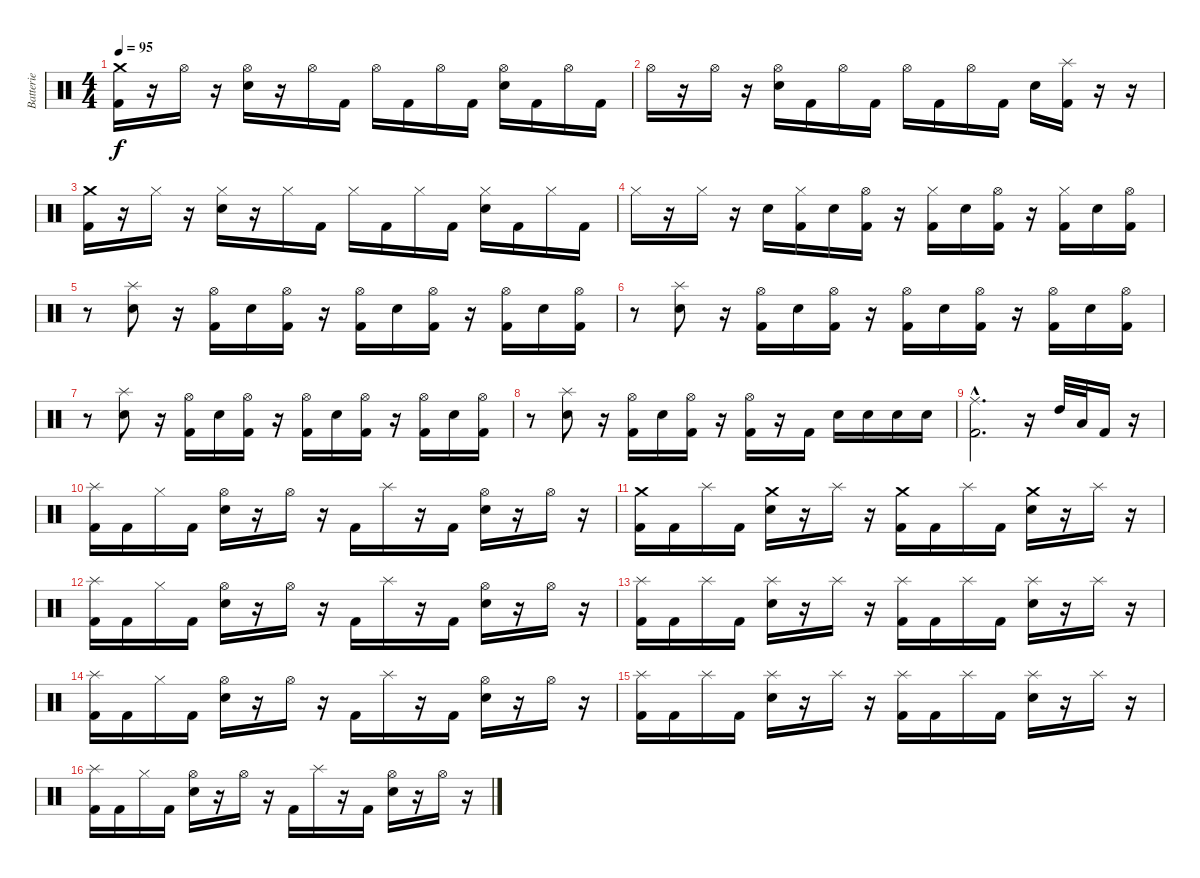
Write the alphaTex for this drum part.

\track ("Batterie" "Batterie") {instrument percussion}
\staff {score}
\articulation defaults
\ts (4 4)
\tempo 95
\clef neutral
\ks c
("Crash medium (hit)" "Kick (hit) 2").16{dy f} r.16 "Hi-Hat (open)".16 r.16 ("Hi-Hat (open)" "Electric Snare (hit)").16 r.16 "Hi-Hat (open)".16 "Kick (hit) 2".16 "Hi-Hat (open)".16 "Kick (hit) 2".16 "Hi-Hat (open)".16 "Kick (hit) 2".16 ("Hi-Hat (open)" "Electric Snare (hit)").16 "Kick (hit) 2".16 "Hi-Hat (open)".16 "Kick (hit) 2".16 |
"Hi-Hat (open)".16 r.16 "Hi-Hat (open)".16 r.16 ("Hi-Hat (open)" "Electric Snare (hit)").16 "Kick (hit) 2".16 "Hi-Hat (open)".16 "Kick (hit) 2".16 "Hi-Hat (open)".16 "Kick (hit) 2".16 "Hi-Hat (open)".16 "Kick (hit) 2".16 "Electric Snare (hit)".16 ("Splash (hit)" "Kick (hit) 2").16 r.16 r.16 |
("Crash medium (hit)" "Kick (hit) 2").16 r.16 "Hi-Hat (closed)".16 r.16 ("Hi-Hat (closed)" "Electric Snare (hit)").16 r.16 "Hi-Hat (closed)".16 "Kick (hit) 2".16 "Hi-Hat (closed)".16 "Kick (hit) 2".16 "Hi-Hat (closed)".16 "Kick (hit) 2".16 ("Hi-Hat (closed)" "Electric Snare (hit)").16 "Kick (hit) 2".16 "Hi-Hat (closed)".16 "Kick (hit) 2".16 |
"Hi-Hat (closed)".16 r.16 "Hi-Hat (closed)".16 r.16 "Electric Snare (hit)".16 ("Hi-Hat (closed)" "Kick (hit) 2").16 "Electric Snare (hit)".16 ("Hi-Hat (open)" "Kick (hit) 2").16 r.16 ("Hi-Hat (closed)" "Kick (hit) 2").16 "Electric Snare (hit)".16 ("Hi-Hat (open)" "Kick (hit) 2").16 r.16 ("Hi-Hat (closed)" "Kick (hit) 2").16 "Electric Snare (hit)".16 ("Hi-Hat (open)" "Kick (hit) 2").16 |
r.8 ("Splash (hit)" "Electric Snare (hit)").8 r.16 ("Hi-Hat (open)" "Kick (hit) 2").16 "Electric Snare (hit)".16 ("Hi-Hat (open)" "Kick (hit) 2").16 r.16 ("Hi-Hat (open)" "Kick (hit) 2").16 "Electric Snare (hit)".16 ("Hi-Hat (open)" "Kick (hit) 2").16 r.16 ("Hi-Hat (open)" "Kick (hit) 2").16 "Electric Snare (hit)".16 ("Hi-Hat (open)" "Kick (hit) 2").16 |
r.8 ("Splash (hit)" "Electric Snare (hit)").8 r.16 ("Hi-Hat (open)" "Kick (hit) 2").16 "Electric Snare (hit)".16 ("Hi-Hat (open)" "Kick (hit) 2").16 r.16 ("Hi-Hat (open)" "Kick (hit) 2").16 "Electric Snare (hit)".16 ("Hi-Hat (open)" "Kick (hit) 2").16 r.16 ("Hi-Hat (open)" "Kick (hit) 2").16 "Electric Snare (hit)".16 ("Hi-Hat (open)" "Kick (hit) 2").16 |
r.8 ("Splash (hit)" "Electric Snare (hit)").8 r.16 ("Hi-Hat (open)" "Kick (hit) 2").16 "Electric Snare (hit)".16 ("Hi-Hat (open)" "Kick (hit) 2").16 r.16 ("Hi-Hat (open)" "Kick (hit) 2").16 "Electric Snare (hit)".16 ("Hi-Hat (open)" "Kick (hit) 2").16 r.16 ("Hi-Hat (open)" "Kick (hit) 2").16 "Electric Snare (hit)".16 ("Hi-Hat (open)" "Kick (hit) 2").16 |
r.8 ("Splash (hit)" "Electric Snare (hit)").8 r.16 ("Hi-Hat (open)" "Kick (hit) 2").16 "Electric Snare (hit)".16 ("Hi-Hat (open)" "Kick (hit) 2").16 r.16 ("Hi-Hat (open)" "Kick (hit) 2").16 r.16 "Kick (hit) 2".16 "Electric Snare (hit)".16 "Electric Snare (hit)".16 "Electric Snare (hit)".16 "Electric Snare (hit)".16 |
("Ride (middle)"{hac} "Kick (hit) 2"{hac}).2{d} r.16 "High Tom (hit)".32 "Low Floor Tom (hit)".32 "Kick (hit) 2".16 r.16 |
("Splash (hit)" "Kick (hit) 2").16 "Kick (hit) 2".16 "Hi-Hat (closed)".16 "Kick (hit) 2".16 ("Hi-Hat (open)" "Electric Snare (hit)").16 r.16 "Hi-Hat (open)".16 r.16 "Kick (hit) 2".16 "Splash (hit)".16 r.16 "Kick (hit) 2".16 ("Hi-Hat (open)" "Electric Snare (hit)").16 r.16 "Hi-Hat (open)".16 r.16 |
("Crash medium (hit)" "Kick (hit) 2").16 "Kick (hit) 2".16 "Splash (hit)".16 "Kick (hit) 2".16 ("Crash medium (hit)" "Electric Snare (hit)").16 r.16 "Splash (hit)".16 r.16 ("Crash medium (hit)" "Kick (hit) 2").16 "Kick (hit) 2".16 "Splash (hit)".16 "Kick (hit) 2".16 ("Crash medium (hit)" "Electric Snare (hit)").16 r.16 "Splash (hit)".16 r.16 |
("Splash (hit)" "Kick (hit) 2").16 "Kick (hit) 2".16 "Hi-Hat (closed)".16 "Kick (hit) 2".16 ("Hi-Hat (open)" "Electric Snare (hit)").16 r.16 "Hi-Hat (open)".16 r.16 "Kick (hit) 2".16 "Splash (hit)".16 r.16 "Kick (hit) 2".16 ("Hi-Hat (open)" "Electric Snare (hit)").16 r.16 "Hi-Hat (open)".16 r.16 |
("Splash (hit)" "Kick (hit) 2").16 "Kick (hit) 2".16 "Splash (hit)".16 "Kick (hit) 2".16 ("Splash (hit)" "Electric Snare (hit)").16 r.16 "Splash (hit)".16 r.16 ("Splash (hit)" "Kick (hit) 2").16 "Kick (hit) 2".16 "Splash (hit)".16 "Kick (hit) 2".16 ("Splash (hit)" "Electric Snare (hit)").16 r.16 "Splash (hit)".16 r.16 |
("Splash (hit)" "Kick (hit) 2").16 "Kick (hit) 2".16 "Hi-Hat (closed)".16 "Kick (hit) 2".16 ("Hi-Hat (open)" "Electric Snare (hit)").16 r.16 "Hi-Hat (open)".16 r.16 "Kick (hit) 2".16 "Splash (hit)".16 r.16 "Kick (hit) 2".16 ("Hi-Hat (open)" "Electric Snare (hit)").16 r.16 "Hi-Hat (open)".16 r.16 |
("Splash (hit)" "Kick (hit) 2").16 "Kick (hit) 2".16 "Splash (hit)".16 "Kick (hit) 2".16 ("Splash (hit)" "Electric Snare (hit)").16 r.16 "Splash (hit)".16 r.16 ("Splash (hit)" "Kick (hit) 2").16 "Kick (hit) 2".16 "Splash (hit)".16 "Kick (hit) 2".16 ("Splash (hit)" "Electric Snare (hit)").16 r.16 "Splash (hit)".16 r.16 |
("Splash (hit)" "Kick (hit) 2").16 "Kick (hit) 2".16 "Hi-Hat (closed)".16 "Kick (hit) 2".16 ("Hi-Hat (open)" "Electric Snare (hit)").16 r.16 "Hi-Hat (open)".16 r.16 "Kick (hit) 2".16 "Splash (hit)".16 r.16 "Kick (hit) 2".16 ("Hi-Hat (open)" "Electric Snare (hit)").16 r.16 "Hi-Hat (open)".16 r.16
